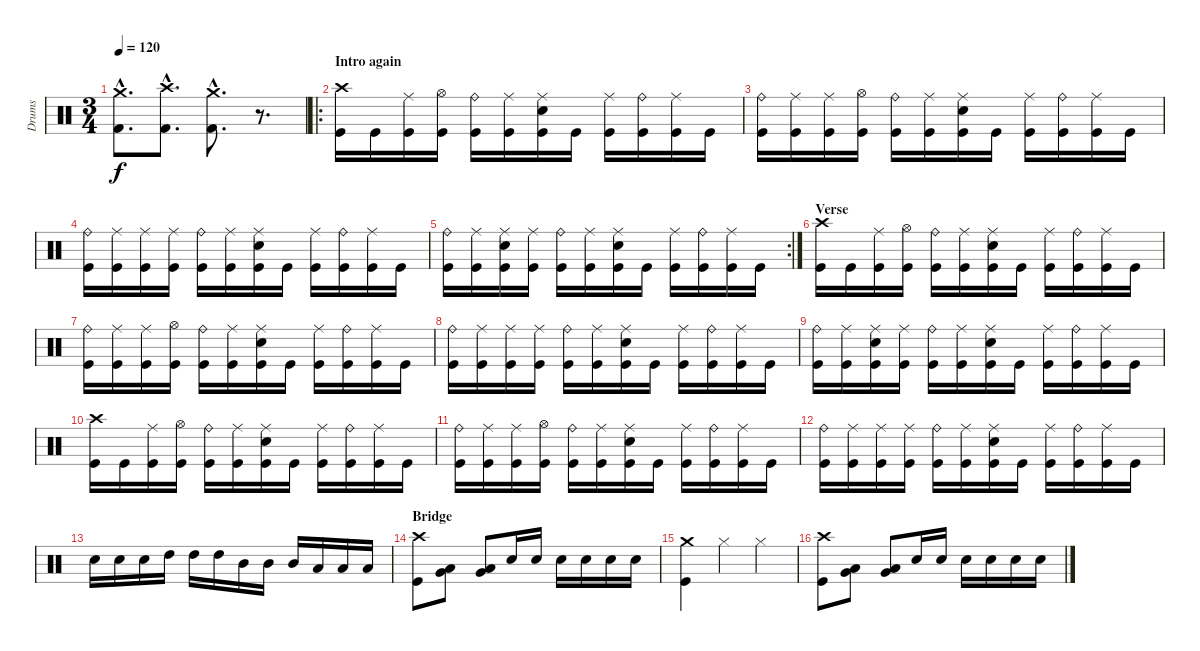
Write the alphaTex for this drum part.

\track ("Drums" "Drums") {instrument percussion}
\staff {score}
\articulation defaults
\ts (3 4)
\tempo 120
\clef neutral
\ks c
("Crash medium (hit)"{hac} "Kick (hit) 2"{hac}).8{d dy f} ("Crash high (hit)"{hac} "Kick (hit) 2"{hac}).8{d} ("Crash medium (hit)"{hac} "Kick (hit) 2"{hac}).8{d} r.8{d} |
\ro
\section ("" "Intro again")
("Crash high (hit)" "Kick (hit)").16 "Kick (hit)".16 ("Ride (middle)" "Kick (hit)").16 ("Hi-Hat (open)" "Kick (hit)").16 ("Ride (bell)" "Kick (hit)").16 ("Ride (middle)" "Kick (hit)").16 ("Ride (middle)" "Electric Snare (hit)" "Kick (hit)").16 "Kick (hit)".16 ("Ride (middle)" "Kick (hit)").16 ("Ride (bell)" "Kick (hit)").16 ("Ride (middle)" "Kick (hit)").16 "Kick (hit)".16 |
("Ride (bell)" "Kick (hit)").16 ("Ride (middle)" "Kick (hit)").16 ("Ride (middle)" "Kick (hit)").16 ("Hi-Hat (open)" "Kick (hit)").16 ("Ride (bell)" "Kick (hit)").16 ("Ride (middle)" "Kick (hit)").16 ("Ride (middle)" "Electric Snare (hit)" "Kick (hit)").16 "Kick (hit)".16 ("Ride (middle)" "Kick (hit)").16 ("Ride (bell)" "Kick (hit)").16 ("Ride (middle)" "Kick (hit)").16 "Kick (hit)".16 |
("Ride (bell)" "Kick (hit)").16 ("Ride (middle)" "Kick (hit)").16 ("Ride (middle)" "Kick (hit)").16 ("Ride (middle)" "Kick (hit)").16 ("Ride (bell)" "Kick (hit)").16 ("Ride (middle)" "Kick (hit)").16 ("Ride (middle)" "Electric Snare (hit)" "Kick (hit)").16 "Kick (hit)".16 ("Ride (middle)" "Kick (hit)").16 ("Ride (bell)" "Kick (hit)").16 ("Ride (middle)" "Kick (hit)").16 "Kick (hit)".16 |
\rc 2
("Ride (bell)" "Kick (hit)").16 ("Ride (middle)" "Kick (hit)").16 ("Ride (middle)" "Electric Snare (hit)" "Kick (hit)").16 ("Ride (middle)" "Kick (hit)").16 ("Ride (bell)" "Kick (hit)").16 ("Ride (middle)" "Kick (hit)").16 ("Ride (middle)" "Electric Snare (hit)" "Kick (hit)").16 "Kick (hit)".16 ("Ride (middle)" "Kick (hit)").16 ("Ride (bell)" "Kick (hit)").16 ("Ride (middle)" "Kick (hit)").16 "Kick (hit)".16 |
\section ("" "Verse")
("Crash high (hit)" "Kick (hit)").16 "Kick (hit)".16 ("Ride (middle)" "Kick (hit)").16 ("Hi-Hat (open)" "Kick (hit)").16 ("Ride (bell)" "Kick (hit)").16 ("Ride (middle)" "Kick (hit)").16 ("Ride (middle)" "Electric Snare (hit)" "Kick (hit)").16 "Kick (hit)".16 ("Ride (middle)" "Kick (hit)").16 ("Ride (bell)" "Kick (hit)").16 ("Ride (middle)" "Kick (hit)").16 "Kick (hit)".16 |
("Ride (bell)" "Kick (hit)").16 ("Ride (middle)" "Kick (hit)").16 ("Ride (middle)" "Kick (hit)").16 ("Hi-Hat (open)" "Kick (hit)").16 ("Ride (bell)" "Kick (hit)").16 ("Ride (middle)" "Kick (hit)").16 ("Ride (middle)" "Electric Snare (hit)" "Kick (hit)").16 "Kick (hit)".16 ("Ride (middle)" "Kick (hit)").16 ("Ride (bell)" "Kick (hit)").16 ("Ride (middle)" "Kick (hit)").16 "Kick (hit)".16 |
("Ride (bell)" "Kick (hit)").16 ("Ride (middle)" "Kick (hit)").16 ("Ride (middle)" "Kick (hit)").16 ("Ride (middle)" "Kick (hit)").16 ("Ride (bell)" "Kick (hit)").16 ("Ride (middle)" "Kick (hit)").16 ("Ride (middle)" "Electric Snare (hit)" "Kick (hit)").16 "Kick (hit)".16 ("Ride (middle)" "Kick (hit)").16 ("Ride (bell)" "Kick (hit)").16 ("Ride (middle)" "Kick (hit)").16 "Kick (hit)".16 |
("Ride (bell)" "Kick (hit)").16 ("Ride (middle)" "Kick (hit)").16 ("Ride (middle)" "Electric Snare (hit)" "Kick (hit)").16 ("Ride (middle)" "Kick (hit)").16 ("Ride (bell)" "Kick (hit)").16 ("Ride (middle)" "Kick (hit)").16 ("Ride (middle)" "Electric Snare (hit)" "Kick (hit)").16 "Kick (hit)".16 ("Ride (middle)" "Kick (hit)").16 ("Ride (bell)" "Kick (hit)").16 ("Ride (middle)" "Kick (hit)").16 "Kick (hit)".16 |
("Crash high (hit)" "Kick (hit)").16 "Kick (hit)".16 ("Ride (middle)" "Kick (hit)").16 ("Hi-Hat (open)" "Kick (hit)").16 ("Ride (bell)" "Kick (hit)").16 ("Ride (middle)" "Kick (hit)").16 ("Ride (middle)" "Electric Snare (hit)" "Kick (hit)").16 "Kick (hit)".16 ("Ride (middle)" "Kick (hit)").16 ("Ride (bell)" "Kick (hit)").16 ("Ride (middle)" "Kick (hit)").16 "Kick (hit)".16 |
("Ride (bell)" "Kick (hit)").16 ("Ride (middle)" "Kick (hit)").16 ("Ride (middle)" "Kick (hit)").16 ("Hi-Hat (open)" "Kick (hit)").16 ("Ride (bell)" "Kick (hit)").16 ("Ride (middle)" "Kick (hit)").16 ("Ride (middle)" "Electric Snare (hit)" "Kick (hit)").16 "Kick (hit)".16 ("Ride (middle)" "Kick (hit)").16 ("Ride (bell)" "Kick (hit)").16 ("Ride (middle)" "Kick (hit)").16 "Kick (hit)".16 |
("Ride (bell)" "Kick (hit)").16 ("Ride (middle)" "Kick (hit)").16 ("Ride (middle)" "Kick (hit)").16 ("Ride (middle)" "Kick (hit)").16 ("Ride (bell)" "Kick (hit)").16 ("Ride (middle)" "Kick (hit)").16 ("Ride (middle)" "Electric Snare (hit)" "Kick (hit)").16 "Kick (hit)".16 ("Ride (middle)" "Kick (hit)").16 ("Ride (bell)" "Kick (hit)").16 ("Ride (middle)" "Kick (hit)").16 "Kick (hit)".16 |
"Electric Snare (hit)".16 "Electric Snare (hit)".16 "Electric Snare (hit)".16 "High Tom (hit)".16 "High Tom (hit)".16 "High Tom (hit)".16 "Mid Tom (hit)".16 "Mid Tom (hit)".16 "Mid Tom (hit)".16 "Low Tom (hit)".16 "Low Tom (hit)".16 "Low Tom (hit)".16 |
\section ("" "Bridge")
("Crash high (hit)" "Kick (hit)").8 ("Very Low Tom (hit)" "Low Tom (hit)").8 ("Very Low Tom (hit)" "Low Tom (hit)").8 "Electric Snare (hit)".16 "Electric Snare (hit)".16 "Electric Snare (hit)".16 "Electric Snare (hit)".16 "Electric Snare (hit)".16 "Electric Snare (hit)".16 |
("Crash medium (hit)" "Kick (hit)").4 "Hi-Hat (closed)".4 "Hi-Hat (closed)".4 |
("Crash high (hit)" "Kick (hit)").8 ("Very Low Tom (hit)" "Low Tom (hit)").8 ("Very Low Tom (hit)" "Low Tom (hit)").8 "Electric Snare (hit)".16 "Electric Snare (hit)".16 "Electric Snare (hit)".16 "Electric Snare (hit)".16 "Electric Snare (hit)".16 "Electric Snare (hit)".16
